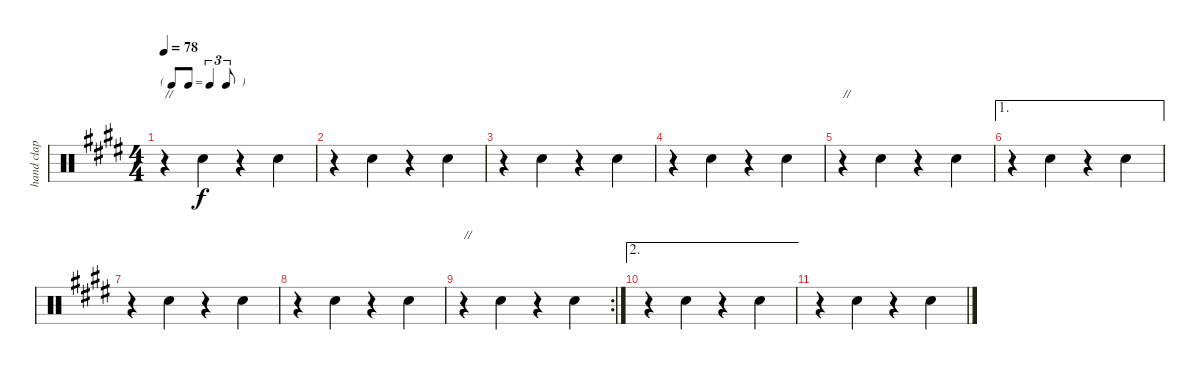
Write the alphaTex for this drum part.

\track ("hand clap" "hand clap") {instrument percussion}
\staff {score}
\articulation defaults
\ts (4 4)
\tf triplet8th
\tempo 78
\clef neutral
\ks e
r.4{txt "//" dy f} "Hand Clap (hit)".4 r.4 "Hand Clap (hit)".4 |
r.4 "Hand Clap (hit)".4 r.4 "Hand Clap (hit)".4 |
r.4 "Hand Clap (hit)".4 r.4 "Hand Clap (hit)".4 |
r.4 "Hand Clap (hit)".4 r.4 "Hand Clap (hit)".4 |
r.4{txt "//"} "Hand Clap (hit)".4 r.4 "Hand Clap (hit)".4 |
\ae 1
r.4 "Hand Clap (hit)".4 r.4 "Hand Clap (hit)".4 |
r.4 "Hand Clap (hit)".4 r.4 "Hand Clap (hit)".4 |
r.4 "Hand Clap (hit)".4 r.4 "Hand Clap (hit)".4 |
\rc 2
r.4{txt "//"} "Hand Clap (hit)".4 r.4 "Hand Clap (hit)".4 |
\ae 2
r.4 "Hand Clap (hit)".4 r.4 "Hand Clap (hit)".4 |
r.4 "Hand Clap (hit)".4 r.4 "Hand Clap (hit)".4
